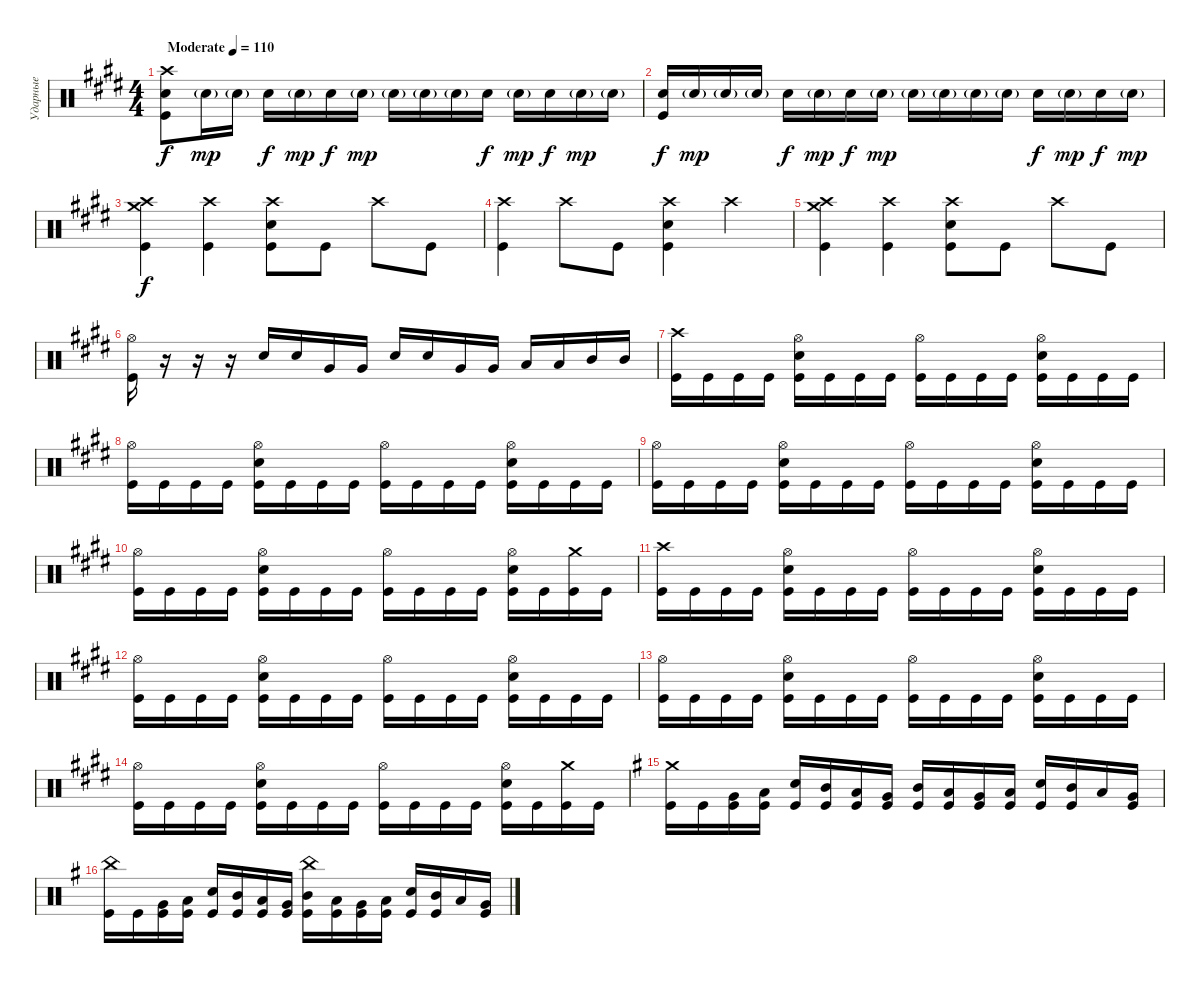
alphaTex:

\track ("Ударные" "Ударные") {instrument percussion}
\staff {score}
\articulation defaults
\ts (4 4)
\tempo (110 "Moderate")
\clef neutral
\ks e
("Crash high (hit)" "Electric Snare (hit)" "Kick (hit)").8{dy f} "Electric Snare (hit)"{g}.16{dy mp} "Electric Snare (hit)"{g}.16 "Electric Snare (hit)".16{dy f} "Electric Snare (hit)"{g}.16{dy mp} "Electric Snare (hit)".16{dy f} "Electric Snare (hit)"{g}.16{dy mp} "Electric Snare (hit)"{g}.16 "Electric Snare (hit)"{g}.16 "Electric Snare (hit)"{g}.16 "Electric Snare (hit)".16{dy f} "Electric Snare (hit)"{g}.16{dy mp} "Electric Snare (hit)".16{dy f} "Electric Snare (hit)"{g}.16{dy mp} "Electric Snare (hit)"{g}.16 |
("Electric Snare (hit)" "Kick (hit)").16{dy f} "Electric Snare (hit)"{g}.16{dy mp} "Electric Snare (hit)"{g}.16 "Electric Snare (hit)"{g}.16 "Electric Snare (hit)".16{dy f} "Electric Snare (hit)"{g}.16{dy mp} "Electric Snare (hit)".16{dy f} "Electric Snare (hit)"{g}.16{dy mp} "Electric Snare (hit)"{g}.16 "Electric Snare (hit)"{g}.16 "Electric Snare (hit)"{g}.16 "Electric Snare (hit)"{g}.16 "Electric Snare (hit)".16{dy f} "Electric Snare (hit)"{g}.16{dy mp} "Electric Snare (hit)".16{dy f} "Electric Snare (hit)"{g}.16{dy mp} |
("Crash high (hit)" "Crash medium (hit)" "Kick (hit)").4{dy f} ("Crash high (hit)" "Kick (hit)").4 ("Crash high (hit)" "Electric Snare (hit)" "Kick (hit)").8 "Kick (hit)".8 "Crash high (hit)".8 "Kick (hit)".8 |
("Crash high (hit)" "Kick (hit)").4 "Crash high (hit)".8 "Kick (hit)".8 ("Crash high (hit)" "Electric Snare (hit)" "Kick (hit)").4 "Crash high (hit)".4 |
("Crash high (hit)" "Crash medium (hit)" "Kick (hit)").4 ("Crash high (hit)" "Kick (hit)").4 ("Crash high (hit)" "Electric Snare (hit)" "Kick (hit)").8 "Kick (hit)".8 "Crash high (hit)".8 "Kick (hit)".8 |
("Hi-Hat (open)" "Kick (hit)").16 r.16 r.16 r.16 "Electric Snare (hit)".16 "Electric Snare (hit)".16 "Very Low Tom (hit)".16 "Very Low Tom (hit)".16 "Electric Snare (hit)".16 "Electric Snare (hit)".16 "Very Low Tom (hit)".16 "Very Low Tom (hit)".16 "Low Tom (hit)".16 "Low Tom (hit)".16 "Mid Tom (hit)".16 "Mid Tom (hit)".16 |
("Crash high (hit)" "Kick (hit)").16 "Kick (hit)".16 "Kick (hit)".16 "Kick (hit)".16 ("Hi-Hat (open)" "Electric Snare (hit)" "Kick (hit)").16 "Kick (hit)".16 "Kick (hit)".16 "Kick (hit)".16 ("Hi-Hat (open)" "Kick (hit)").16 "Kick (hit)".16 "Kick (hit)".16 "Kick (hit)".16 ("Hi-Hat (open)" "Electric Snare (hit)" "Kick (hit)").16 "Kick (hit)".16 "Kick (hit)".16 "Kick (hit)".16 |
("Hi-Hat (open)" "Kick (hit)").16 "Kick (hit)".16 "Kick (hit)".16 "Kick (hit)".16 ("Hi-Hat (open)" "Electric Snare (hit)" "Kick (hit)").16 "Kick (hit)".16 "Kick (hit)".16 "Kick (hit)".16 ("Hi-Hat (open)" "Kick (hit)").16 "Kick (hit)".16 "Kick (hit)".16 "Kick (hit)".16 ("Hi-Hat (open)" "Electric Snare (hit)" "Kick (hit)").16 "Kick (hit)".16 "Kick (hit)".16 "Kick (hit)".16 |
("Hi-Hat (open)" "Kick (hit)").16 "Kick (hit)".16 "Kick (hit)".16 "Kick (hit)".16 ("Hi-Hat (open)" "Electric Snare (hit)" "Kick (hit)").16 "Kick (hit)".16 "Kick (hit)".16 "Kick (hit)".16 ("Hi-Hat (open)" "Kick (hit)").16 "Kick (hit)".16 "Kick (hit)".16 "Kick (hit)".16 ("Hi-Hat (open)" "Electric Snare (hit)" "Kick (hit)").16 "Kick (hit)".16 "Kick (hit)".16 "Kick (hit)".16 |
("Hi-Hat (open)" "Kick (hit)").16 "Kick (hit)".16 "Kick (hit)".16 "Kick (hit)".16 ("Hi-Hat (open)" "Electric Snare (hit)" "Kick (hit)").16 "Kick (hit)".16 "Kick (hit)".16 "Kick (hit)".16 ("Hi-Hat (open)" "Kick (hit)").16 "Kick (hit)".16 "Kick (hit)".16 "Kick (hit)".16 ("Hi-Hat (open)" "Electric Snare (hit)" "Kick (hit)").16 "Kick (hit)".16 ("Crash medium (hit)" "Kick (hit)").16 "Kick (hit)".16 |
("Crash high (hit)" "Kick (hit)").16 "Kick (hit)".16 "Kick (hit)".16 "Kick (hit)".16 ("Hi-Hat (open)" "Electric Snare (hit)" "Kick (hit)").16 "Kick (hit)".16 "Kick (hit)".16 "Kick (hit)".16 ("Hi-Hat (open)" "Kick (hit)").16 "Kick (hit)".16 "Kick (hit)".16 "Kick (hit)".16 ("Hi-Hat (open)" "Electric Snare (hit)" "Kick (hit)").16 "Kick (hit)".16 "Kick (hit)".16 "Kick (hit)".16 |
("Hi-Hat (open)" "Kick (hit)").16 "Kick (hit)".16 "Kick (hit)".16 "Kick (hit)".16 ("Hi-Hat (open)" "Electric Snare (hit)" "Kick (hit)").16 "Kick (hit)".16 "Kick (hit)".16 "Kick (hit)".16 ("Hi-Hat (open)" "Kick (hit)").16 "Kick (hit)".16 "Kick (hit)".16 "Kick (hit)".16 ("Hi-Hat (open)" "Electric Snare (hit)" "Kick (hit)").16 "Kick (hit)".16 "Kick (hit)".16 "Kick (hit)".16 |
("Hi-Hat (open)" "Kick (hit)").16 "Kick (hit)".16 "Kick (hit)".16 "Kick (hit)".16 ("Hi-Hat (open)" "Electric Snare (hit)" "Kick (hit)").16 "Kick (hit)".16 "Kick (hit)".16 "Kick (hit)".16 ("Hi-Hat (open)" "Kick (hit)").16 "Kick (hit)".16 "Kick (hit)".16 "Kick (hit)".16 ("Hi-Hat (open)" "Electric Snare (hit)" "Kick (hit)").16 "Kick (hit)".16 "Kick (hit)".16 "Kick (hit)".16 |
("Hi-Hat (open)" "Kick (hit)").16 "Kick (hit)".16 "Kick (hit)".16 "Kick (hit)".16 ("Hi-Hat (open)" "Electric Snare (hit)" "Kick (hit)").16 "Kick (hit)".16 "Kick (hit)".16 "Kick (hit)".16 ("Hi-Hat (open)" "Kick (hit)").16 "Kick (hit)".16 "Kick (hit)".16 "Kick (hit)".16 ("Hi-Hat (open)" "Electric Snare (hit)" "Kick (hit)").16 "Kick (hit)".16 ("Crash medium (hit)" "Kick (hit)").16 "Kick (hit)".16 |
\ks g
("Crash medium (hit)" "Kick (hit)").16 "Kick (hit)".16 ("Very Low Tom (hit)" "Kick (hit)").16 ("Low Floor Tom (hit)" "Kick (hit)").16 ("Electric Snare (hit)" "Kick (hit)").16 ("Mid Tom (hit)" "Kick (hit)").16 ("Low Tom (hit)" "Kick (hit)").16 ("Very Low Tom (hit)" "Kick (hit)").16 ("Mid Tom (hit)" "Kick (hit)").16 ("Low Tom (hit)" "Kick (hit)").16 ("Very Low Tom (hit)" "Kick (hit)").16 ("Low Floor Tom (hit)" "Kick (hit)").16 ("Electric Snare (hit)" "Kick (hit)").16 ("Mid Tom (hit)" "Kick (hit)").16 "Low Tom (hit)".16 ("Very Low Tom (hit)" "Kick (hit)").16 |
("China (hit)" "Kick (hit)").16 "Kick (hit)".16 ("Very Low Tom (hit)" "Kick (hit)").16 ("Low Floor Tom (hit)" "Kick (hit)").16 ("Electric Snare (hit)" "Kick (hit)").16 ("Mid Tom (hit)" "Kick (hit)").16 ("Low Tom (hit)" "Kick (hit)").16 ("Very Low Tom (hit)" "Kick (hit)").16 ("China (hit)" "Mid Tom (hit)" "Kick (hit)").16 ("Low Tom (hit)" "Kick (hit)").16 ("Very Low Tom (hit)" "Kick (hit)").16 ("Low Floor Tom (hit)" "Kick (hit)").16 ("Electric Snare (hit)" "Kick (hit)").16 ("Mid Tom (hit)" "Kick (hit)").16 "Low Tom (hit)".16 ("Very Low Tom (hit)" "Kick (hit)").16
